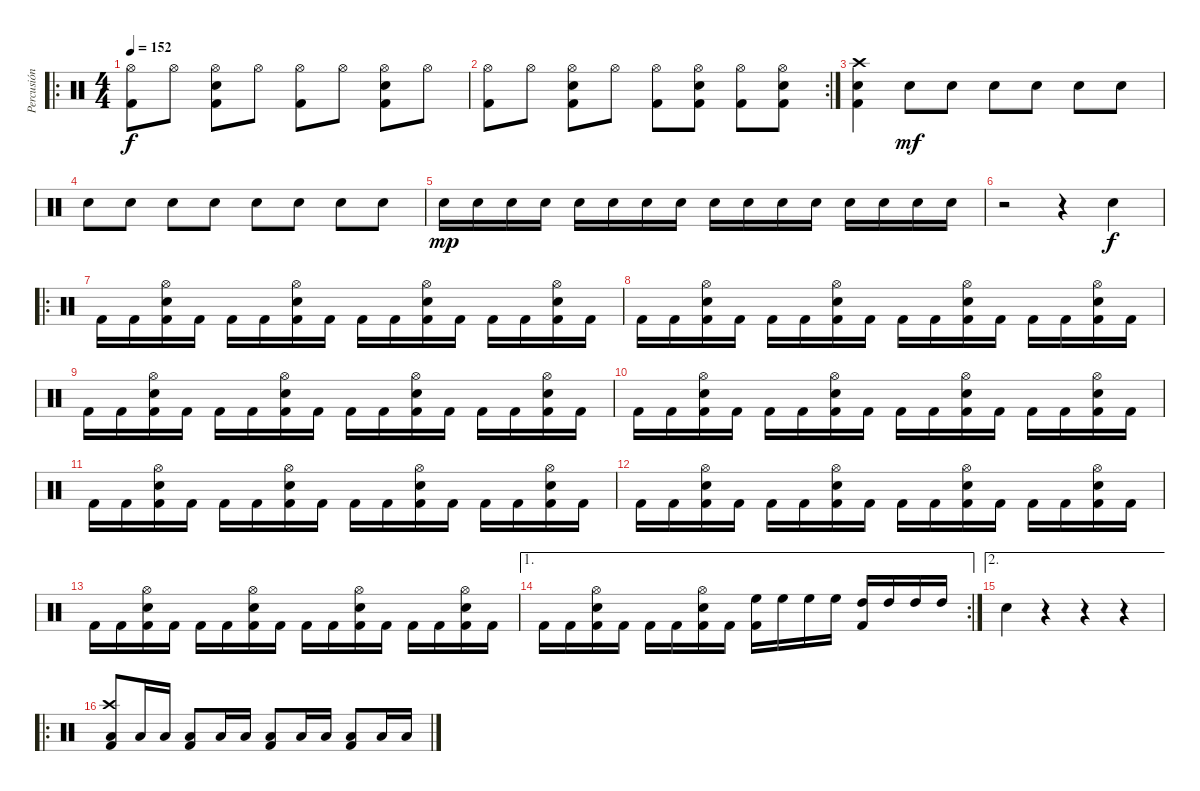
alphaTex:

\track ("Percusión" "Percusión") {instrument percussion}
\staff {score}
\articulation defaults
\ro
\ts (4 4)
\tempo 152
\clef neutral
\ks c
("Hi-Hat (open)" "Kick (hit) 2").8{dy f} "Hi-Hat (open)".8 ("Hi-Hat (open)" "Snare (hit) 2" "Kick (hit) 2").8 "Hi-Hat (open)".8 ("Hi-Hat (open)" "Kick (hit) 2").8 "Hi-Hat (open)".8 ("Hi-Hat (open)" "Snare (hit) 2" "Kick (hit) 2").8 "Hi-Hat (open)".8 |
\rc 2
("Hi-Hat (open)" "Kick (hit) 2").8 "Hi-Hat (open)".8 ("Hi-Hat (open)" "Snare (hit) 2" "Kick (hit) 2").8 "Hi-Hat (open)".8 ("Hi-Hat (open)" "Kick (hit) 2").8 ("Hi-Hat (open)" "Snare (hit) 2" "Kick (hit) 2").8 ("Hi-Hat (open)" "Kick (hit) 2").8 ("Hi-Hat (open)" "Snare (hit) 2" "Kick (hit) 2").8 |
("Crash high (hit)" "Snare (hit) 2" "Kick (hit) 2").4 "Snare (hit) 2".8{dy mf} "Snare (hit) 2".8 "Snare (hit) 2".8 "Snare (hit) 2".8 "Snare (hit) 2".8 "Snare (hit) 2".8 |
"Snare (hit) 2".8 "Snare (hit) 2".8 "Snare (hit) 2".8 "Snare (hit) 2".8 "Snare (hit) 2".8 "Snare (hit) 2".8 "Snare (hit) 2".8 "Snare (hit) 2".8 |
"Snare (hit) 2".16{dy mp} "Snare (hit) 2".16 "Snare (hit) 2".16 "Snare (hit) 2".16 "Snare (hit) 2".16 "Snare (hit) 2".16 "Snare (hit) 2".16 "Snare (hit) 2".16 "Snare (hit) 2".16 "Snare (hit) 2".16 "Snare (hit) 2".16 "Snare (hit) 2".16 "Snare (hit) 2".16 "Snare (hit) 2".16 "Snare (hit) 2".16 "Snare (hit) 2".16 |
r.2 r.4 "Snare (hit) 2".4{dy f} |
\ro "Kick (hit) 2".16 "Kick (hit) 2".16
("Hi-Hat (open)" "Snare (hit) 2" "Kick (hit) 2").16 "Kick (hit) 2".16 "Kick (hit) 2".16 "Kick (hit) 2".16 ("Hi-Hat (open)" "Snare (hit) 2" "Kick (hit) 2").16 "Kick (hit) 2".16 "Kick (hit) 2".16 "Kick (hit) 2".16 ("Hi-Hat (open)" "Snare (hit) 2" "Kick (hit) 2").16 "Kick (hit) 2".16 "Kick (hit) 2".16 "Kick (hit) 2".16 ("Hi-Hat (open)" "Snare (hit) 2" "Kick (hit) 2").16 "Kick (hit) 2".16 |
"Kick (hit) 2".16 "Kick (hit) 2".16 ("Hi-Hat (open)" "Snare (hit) 2" "Kick (hit) 2").16 "Kick (hit) 2".16 "Kick (hit) 2".16 "Kick (hit) 2".16 ("Hi-Hat (open)" "Snare (hit) 2" "Kick (hit) 2").16 "Kick (hit) 2".16 "Kick (hit) 2".16 "Kick (hit) 2".16 ("Hi-Hat (open)" "Snare (hit) 2" "Kick (hit) 2").16 "Kick (hit) 2".16 "Kick (hit) 2".16 "Kick (hit) 2".16 ("Hi-Hat (open)" "Snare (hit) 2" "Kick (hit) 2").16 "Kick (hit) 2".16 |
"Kick (hit) 2".16 "Kick (hit) 2".16 ("Hi-Hat (open)" "Snare (hit) 2" "Kick (hit) 2").16 "Kick (hit) 2".16 "Kick (hit) 2".16 "Kick (hit) 2".16 ("Hi-Hat (open)" "Snare (hit) 2" "Kick (hit) 2").16 "Kick (hit) 2".16 "Kick (hit) 2".16 "Kick (hit) 2".16 ("Hi-Hat (open)" "Snare (hit) 2" "Kick (hit) 2").16 "Kick (hit) 2".16 "Kick (hit) 2".16 "Kick (hit) 2".16 ("Hi-Hat (open)" "Snare (hit) 2" "Kick (hit) 2").16 "Kick (hit) 2".16 |
"Kick (hit) 2".16 "Kick (hit) 2".16 ("Hi-Hat (open)" "Snare (hit) 2" "Kick (hit) 2").16 "Kick (hit) 2".16 "Kick (hit) 2".16 "Kick (hit) 2".16 ("Hi-Hat (open)" "Snare (hit) 2" "Kick (hit) 2").16 "Kick (hit) 2".16 "Kick (hit) 2".16 "Kick (hit) 2".16 ("Hi-Hat (open)" "Snare (hit) 2" "Kick (hit) 2").16 "Kick (hit) 2".16 "Kick (hit) 2".16 "Kick (hit) 2".16 ("Hi-Hat (open)" "Snare (hit) 2" "Kick (hit) 2").16 "Kick (hit) 2".16 |
"Kick (hit) 2".16 "Kick (hit) 2".16 ("Hi-Hat (open)" "Snare (hit) 2" "Kick (hit) 2").16 "Kick (hit) 2".16 "Kick (hit) 2".16 "Kick (hit) 2".16 ("Hi-Hat (open)" "Snare (hit) 2" "Kick (hit) 2").16 "Kick (hit) 2".16 "Kick (hit) 2".16 "Kick (hit) 2".16 ("Hi-Hat (open)" "Snare (hit) 2" "Kick (hit) 2").16 "Kick (hit) 2".16 "Kick (hit) 2".16 "Kick (hit) 2".16 ("Hi-Hat (open)" "Snare (hit) 2" "Kick (hit) 2").16 "Kick (hit) 2".16 |
"Kick (hit) 2".16 "Kick (hit) 2".16 ("Hi-Hat (open)" "Snare (hit) 2" "Kick (hit) 2").16 "Kick (hit) 2".16 "Kick (hit) 2".16 "Kick (hit) 2".16 ("Hi-Hat (open)" "Snare (hit) 2" "Kick (hit) 2").16 "Kick (hit) 2".16 "Kick (hit) 2".16 "Kick (hit) 2".16 ("Hi-Hat (open)" "Snare (hit) 2" "Kick (hit) 2").16 "Kick (hit) 2".16 "Kick (hit) 2".16 "Kick (hit) 2".16 ("Hi-Hat (open)" "Snare (hit) 2" "Kick (hit) 2").16 "Kick (hit) 2".16 |
"Kick (hit) 2".16 "Kick (hit) 2".16 ("Hi-Hat (open)" "Snare (hit) 2" "Kick (hit) 2").16 "Kick (hit) 2".16 "Kick (hit) 2".16 "Kick (hit) 2".16 ("Hi-Hat (open)" "Snare (hit) 2" "Kick (hit) 2").16 "Kick (hit) 2".16 "Kick (hit) 2".16 "Kick (hit) 2".16 ("Hi-Hat (open)" "Snare (hit) 2" "Kick (hit) 2").16 "Kick (hit) 2".16 "Kick (hit) 2".16 "Kick (hit) 2".16 ("Hi-Hat (open)" "Snare (hit) 2" "Kick (hit) 2").16 "Kick (hit) 2".16 |
\ae 1
\rc 2 "Kick (hit) 2".16 "Kick (hit) 2".16
("Hi-Hat (open)" "Snare (hit) 2" "Kick (hit) 2").16 "Kick (hit) 2".16 "Kick (hit) 2".16 "Kick (hit) 2".16 ("Hi-Hat (open)" "Snare (hit) 2" "Kick (hit) 2").16 "Kick (hit) 2".16 ("Kick (hit) 2" "High Floor Tom (hit)").16 "High Floor Tom (hit)".16 "High Floor Tom (hit)".16 "High Floor Tom (hit)".16 ("Kick (hit) 2" "High Tom (hit)").16 "High Tom (hit)".16 "High Tom (hit)".16 "High Tom (hit)".16 |
\ae 2 "Snare (hit) 2".4
r.4 r.4 r.4 |
\ro
("Crash high (hit)" "Kick (hit) 2" "Low Floor Tom (hit)").8 "Low Floor Tom (hit)".16 "Low Floor Tom (hit)".16 ("Kick (hit) 2" "Low Floor Tom (hit)").8 "Low Floor Tom (hit)".16 "Low Floor Tom (hit)".16 ("Kick (hit) 2" "Low Floor Tom (hit)").8 "Low Floor Tom (hit)".16 "Low Floor Tom (hit)".16 ("Kick (hit) 2" "Low Floor Tom (hit)").8 "Low Floor Tom (hit)".16 "Low Floor Tom (hit)".16
